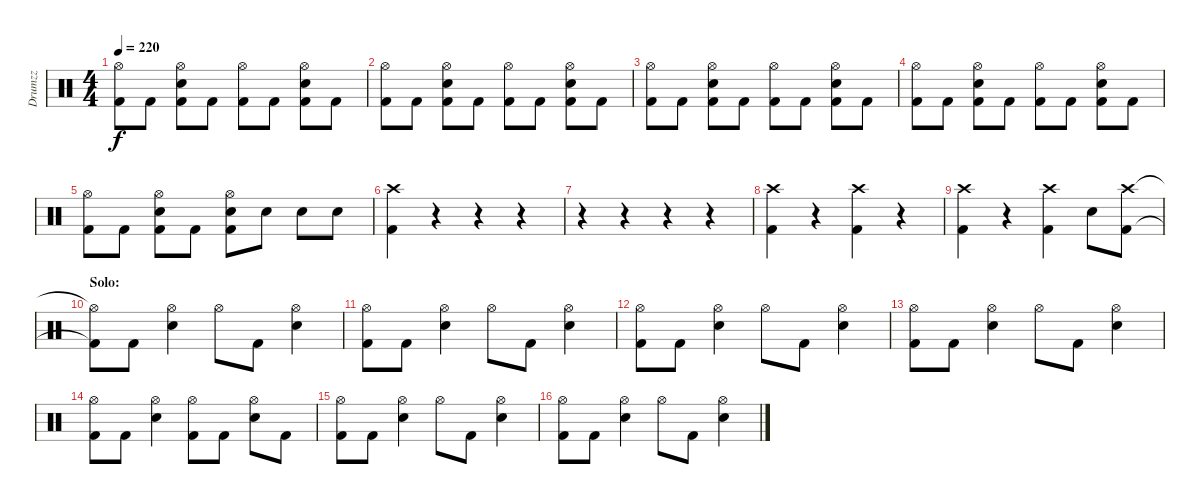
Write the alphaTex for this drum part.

\track ("Drumzz" "Drumzz") {instrument percussion}
\staff {score}
\articulation defaults
\ts (4 4)
\tempo 220
\clef neutral
\ks c
("Hi-Hat (open)" "Kick (hit) 2").8{dy f} "Kick (hit) 2".8 ("Hi-Hat (open)" "Electric Snare (hit)" "Kick (hit) 2").8 "Kick (hit) 2".8 ("Hi-Hat (open)" "Kick (hit) 2").8 "Kick (hit) 2".8 ("Hi-Hat (open)" "Electric Snare (hit)" "Kick (hit) 2").8 "Kick (hit) 2".8 |
("Hi-Hat (open)" "Kick (hit) 2").8 "Kick (hit) 2".8 ("Hi-Hat (open)" "Electric Snare (hit)" "Kick (hit) 2").8 "Kick (hit) 2".8 ("Hi-Hat (open)" "Kick (hit) 2").8 "Kick (hit) 2".8 ("Hi-Hat (open)" "Electric Snare (hit)" "Kick (hit) 2").8 "Kick (hit) 2".8 |
("Hi-Hat (open)" "Kick (hit) 2").8 "Kick (hit) 2".8 ("Hi-Hat (open)" "Electric Snare (hit)" "Kick (hit) 2").8 "Kick (hit) 2".8 ("Hi-Hat (open)" "Kick (hit) 2").8 "Kick (hit) 2".8 ("Hi-Hat (open)" "Electric Snare (hit)" "Kick (hit) 2").8 "Kick (hit) 2".8 |
("Hi-Hat (open)" "Kick (hit) 2").8 "Kick (hit) 2".8 ("Hi-Hat (open)" "Electric Snare (hit)" "Kick (hit) 2").8 "Kick (hit) 2".8 ("Hi-Hat (open)" "Kick (hit) 2").8 "Kick (hit) 2".8 ("Hi-Hat (open)" "Electric Snare (hit)" "Kick (hit) 2").8 "Kick (hit) 2".8 |
("Hi-Hat (open)" "Kick (hit) 2").8 "Kick (hit) 2".8 ("Hi-Hat (open)" "Electric Snare (hit)" "Kick (hit) 2").8 "Kick (hit) 2".8 ("Hi-Hat (open)" "Electric Snare (hit)" "Kick (hit) 2").8 "Electric Snare (hit)".8 "Electric Snare (hit)".8 "Electric Snare (hit)".8 |
("Crash high (hit)" "Kick (hit) 2").4 r.4 r.4 r.4 |
r.4 r.4 r.4 r.4 |
("Crash high (hit)" "Kick (hit) 2").4 r.4 ("Crash high (hit)" "Kick (hit) 2").4 r.4 |
("Crash high (hit)" "Kick (hit) 2").4 r.4 ("Crash high (hit)" "Kick (hit) 2").4 "Electric Snare (hit)".8 ("Crash high (hit)" "Kick (hit) 2").8 |
\section ("" "Solo:")
("Hi-Hat (open)"{t} "Kick (hit) 2"{t}).8 "Kick (hit) 2".8 ("Hi-Hat (open)" "Electric Snare (hit)").4 "Hi-Hat (open)".8 "Kick (hit) 2".8 ("Hi-Hat (open)" "Electric Snare (hit)").4 |
("Hi-Hat (open)" "Kick (hit) 2").8 "Kick (hit) 2".8 ("Hi-Hat (open)" "Electric Snare (hit)").4 "Hi-Hat (open)".8 "Kick (hit) 2".8 ("Hi-Hat (open)" "Electric Snare (hit)").4 |
("Hi-Hat (open)" "Kick (hit) 2").8 "Kick (hit) 2".8 ("Hi-Hat (open)" "Electric Snare (hit)").4 "Hi-Hat (open)".8 "Kick (hit) 2".8 ("Hi-Hat (open)" "Electric Snare (hit)").4 |
("Hi-Hat (open)" "Kick (hit) 2").8 "Kick (hit) 2".8 ("Hi-Hat (open)" "Electric Snare (hit)").4 "Hi-Hat (open)".8 "Kick (hit) 2".8 ("Hi-Hat (open)" "Electric Snare (hit)").4 |
("Hi-Hat (open)" "Kick (hit) 2").8 "Kick (hit) 2".8 ("Hi-Hat (open)" "Electric Snare (hit)").4 ("Hi-Hat (open)" "Kick (hit) 2").8 "Kick (hit) 2".8 ("Hi-Hat (open)" "Electric Snare (hit)").8 "Kick (hit) 2".8 |
("Hi-Hat (open)" "Kick (hit) 2").8 "Kick (hit) 2".8 ("Hi-Hat (open)" "Electric Snare (hit)").4 "Hi-Hat (open)".8 "Kick (hit) 2".8 ("Hi-Hat (open)" "Electric Snare (hit)").4 |
("Hi-Hat (open)" "Kick (hit) 2").8 "Kick (hit) 2".8 ("Hi-Hat (open)" "Electric Snare (hit)").4 "Hi-Hat (open)".8 "Kick (hit) 2".8 ("Hi-Hat (open)" "Electric Snare (hit)").4
